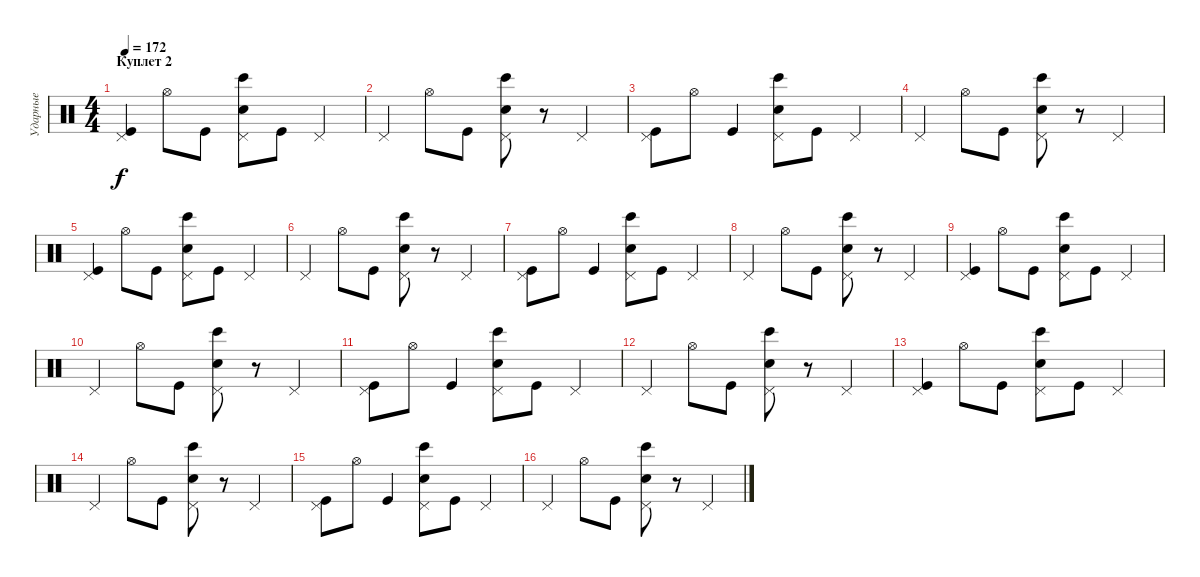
\track ("Ударные" "Ударные") {instrument percussion}
\staff {score}
\articulation defaults
\ts (4 4)
\section ("" "Куплет 2")
\tempo 172
\clef neutral
\ks c
("Pedal Hi-Hat (hit)" "Kick (hit)").4{dy f} "Hi-Hat (open)".8 "Kick (hit)".8 ("Pedal Hi-Hat (hit)" "Hand Clap (hit)" "Bongo High (hit)").8 "Kick (hit)".8 "Pedal Hi-Hat (hit)".4 |
"Pedal Hi-Hat (hit)".4 "Hi-Hat (open)".8 "Kick (hit)".8 ("Pedal Hi-Hat (hit)" "Hand Clap (hit)" "Bongo High (hit)").8 r.8 "Pedal Hi-Hat (hit)".4 |
("Pedal Hi-Hat (hit)" "Kick (hit)").8 "Hi-Hat (open)".8 "Kick (hit)".4 ("Pedal Hi-Hat (hit)" "Hand Clap (hit)" "Bongo High (hit)").8 "Kick (hit)".8 "Pedal Hi-Hat (hit)".4 |
"Pedal Hi-Hat (hit)".4 "Hi-Hat (open)".8 "Kick (hit)".8 ("Pedal Hi-Hat (hit)" "Hand Clap (hit)" "Bongo High (hit)").8 r.8 "Pedal Hi-Hat (hit)".4 |
("Pedal Hi-Hat (hit)" "Kick (hit)").4 "Hi-Hat (open)".8 "Kick (hit)".8 ("Pedal Hi-Hat (hit)" "Hand Clap (hit)" "Bongo High (hit)").8 "Kick (hit)".8 "Pedal Hi-Hat (hit)".4 |
"Pedal Hi-Hat (hit)".4 "Hi-Hat (open)".8 "Kick (hit)".8 ("Pedal Hi-Hat (hit)" "Hand Clap (hit)" "Bongo High (hit)").8 r.8 "Pedal Hi-Hat (hit)".4 |
("Pedal Hi-Hat (hit)" "Kick (hit)").8 "Hi-Hat (open)".8 "Kick (hit)".4 ("Pedal Hi-Hat (hit)" "Hand Clap (hit)" "Bongo High (hit)").8 "Kick (hit)".8 "Pedal Hi-Hat (hit)".4 |
"Pedal Hi-Hat (hit)".4 "Hi-Hat (open)".8 "Kick (hit)".8 ("Pedal Hi-Hat (hit)" "Hand Clap (hit)" "Bongo High (hit)").8 r.8 "Pedal Hi-Hat (hit)".4 |
("Pedal Hi-Hat (hit)" "Kick (hit)").4 "Hi-Hat (open)".8 "Kick (hit)".8 ("Pedal Hi-Hat (hit)" "Hand Clap (hit)" "Bongo High (hit)").8 "Kick (hit)".8 "Pedal Hi-Hat (hit)".4 |
"Pedal Hi-Hat (hit)".4 "Hi-Hat (open)".8 "Kick (hit)".8 ("Pedal Hi-Hat (hit)" "Hand Clap (hit)" "Bongo High (hit)").8 r.8 "Pedal Hi-Hat (hit)".4 |
("Pedal Hi-Hat (hit)" "Kick (hit)").8 "Hi-Hat (open)".8 "Kick (hit)".4 ("Pedal Hi-Hat (hit)" "Hand Clap (hit)" "Bongo High (hit)").8 "Kick (hit)".8 "Pedal Hi-Hat (hit)".4 |
"Pedal Hi-Hat (hit)".4 "Hi-Hat (open)".8 "Kick (hit)".8 ("Pedal Hi-Hat (hit)" "Hand Clap (hit)" "Bongo High (hit)").8 r.8 "Pedal Hi-Hat (hit)".4 |
("Pedal Hi-Hat (hit)" "Kick (hit)").4 "Hi-Hat (open)".8 "Kick (hit)".8 ("Pedal Hi-Hat (hit)" "Hand Clap (hit)" "Bongo High (hit)").8 "Kick (hit)".8 "Pedal Hi-Hat (hit)".4 |
"Pedal Hi-Hat (hit)".4 "Hi-Hat (open)".8 "Kick (hit)".8 ("Pedal Hi-Hat (hit)" "Hand Clap (hit)" "Bongo High (hit)").8 r.8 "Pedal Hi-Hat (hit)".4 |
("Pedal Hi-Hat (hit)" "Kick (hit)").8 "Hi-Hat (open)".8 "Kick (hit)".4 ("Pedal Hi-Hat (hit)" "Hand Clap (hit)" "Bongo High (hit)").8 "Kick (hit)".8 "Pedal Hi-Hat (hit)".4 |
"Pedal Hi-Hat (hit)".4 "Hi-Hat (open)".8 "Kick (hit)".8 ("Pedal Hi-Hat (hit)" "Hand Clap (hit)" "Bongo High (hit)").8 r.8 "Pedal Hi-Hat (hit)".4
